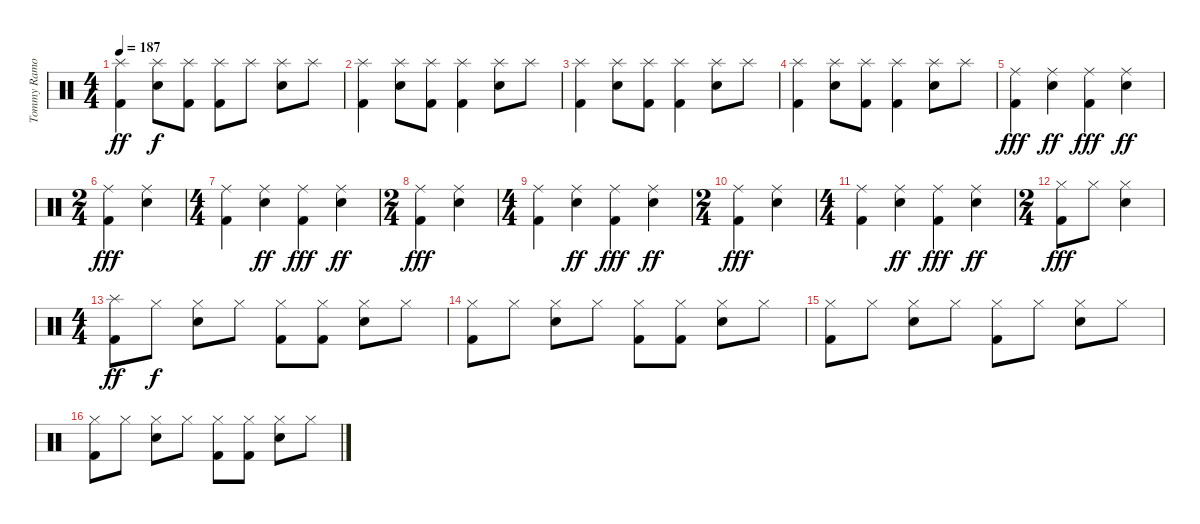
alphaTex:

\track ("Tommy Ramone" "Tommy Ramo") {instrument percussion}
\staff {score}
\articulation defaults
\ts (4 4)
\tempo 187
\clef neutral
\ks c
("Kick (hit) 2" "Splash (hit)").4{dy ff} ("Snare (hit) 2" "Splash (hit)").8{dy f} ("Kick (hit) 2" "Splash (hit)").8 ("Kick (hit) 2" "Splash (hit)").8 "Splash (hit)".8{bd 240} ("Snare (hit) 2" "Splash (hit)").8 "Splash (hit)".8{bd 240} |
("Kick (hit) 2" "Splash (hit)").4 ("Snare (hit) 2" "Splash (hit)").8 ("Kick (hit) 2" "Splash (hit)").8{bd 240} ("Kick (hit) 2" "Splash (hit)").4 ("Snare (hit) 2" "Splash (hit)").8 "Splash (hit)".8 |
("Kick (hit) 2" "Splash (hit)").4 ("Snare (hit) 2" "Splash (hit)").8 ("Kick (hit) 2" "Splash (hit)").8{bd 240} ("Kick (hit) 2" "Splash (hit)").4 ("Snare (hit) 2" "Splash (hit)").8 "Splash (hit)".8 |
("Kick (hit) 2" "Splash (hit)").4 ("Snare (hit) 2" "Splash (hit)").8 ("Kick (hit) 2" "Splash (hit)").8{bd 240} ("Kick (hit) 2" "Splash (hit)").4 ("Snare (hit) 2" "Splash (hit)").8 "Splash (hit)".8 |
("Kick (hit) 2" "Ride (middle)").4{dy fff} ("Snare (hit) 2" "Ride (middle)").4{dy ff} ("Kick (hit) 2" "Ride (middle)").4{dy fff} ("Snare (hit) 2" "Ride (middle)").4{dy ff} |
\ts (2 4)
("Kick (hit) 2" "Ride (middle)").4{dy fff} ("Snare (hit) 2" "Ride (middle)").4 |
\ts (4 4)
("Kick (hit) 2" "Ride (middle)").4 ("Snare (hit) 2" "Ride (middle)").4{dy ff} ("Kick (hit) 2" "Ride (middle)").4{dy fff} ("Snare (hit) 2" "Ride (middle)").4{dy ff} |
\ts (2 4)
("Kick (hit) 2" "Ride (middle)").4{dy fff} ("Snare (hit) 2" "Ride (middle)").4 |
\ts (4 4)
("Kick (hit) 2" "Ride (middle)").4 ("Snare (hit) 2" "Ride (middle)").4{dy ff} ("Kick (hit) 2" "Ride (middle)").4{dy fff} ("Snare (hit) 2" "Ride (middle)").4{dy ff} |
\ts (2 4)
("Kick (hit) 2" "Ride (middle)").4{dy fff} ("Snare (hit) 2" "Ride (middle)").4 |
\ts (4 4)
("Kick (hit) 2" "Ride (middle)").4 ("Snare (hit) 2" "Ride (middle)").4{dy ff} ("Kick (hit) 2" "Ride (middle)").4{dy fff} ("Snare (hit) 2" "Ride (middle)").4{dy ff} |
\ts (2 4)
("Kick (hit) 2" "Hi-Hat (closed)").8{dy fff} "Hi-Hat (closed)".8 ("Snare (hit) 2" "Hi-Hat (closed)").4 |
\ts (4 4)
("Kick (hit) 2" "Splash (hit)").8{dy ff} "Hi-Hat (closed)".8{dy f} ("Snare (hit) 2" "Hi-Hat (closed)").8 "Hi-Hat (closed)".8 ("Kick (hit) 2" "Hi-Hat (closed)").8 ("Kick (hit) 2" "Hi-Hat (closed)").8 ("Snare (hit) 2" "Hi-Hat (closed)").8 "Hi-Hat (closed)".8 |
("Kick (hit) 2" "Hi-Hat (closed)").8 "Hi-Hat (closed)".8 ("Snare (hit) 2" "Hi-Hat (closed)").8 "Hi-Hat (closed)".8 ("Kick (hit) 2" "Hi-Hat (closed)").8 ("Kick (hit) 2" "Hi-Hat (closed)").8 ("Snare (hit) 2" "Hi-Hat (closed)").8 "Hi-Hat (closed)".8 |
("Kick (hit) 2" "Hi-Hat (closed)").8 "Hi-Hat (closed)".8 ("Snare (hit) 2" "Hi-Hat (closed)").8 "Hi-Hat (closed)".8 ("Kick (hit) 2" "Hi-Hat (closed)").8 "Hi-Hat (closed)".8 ("Snare (hit) 2" "Hi-Hat (closed)").8 "Hi-Hat (closed)".8 |
("Kick (hit) 2" "Hi-Hat (closed)").8 "Hi-Hat (closed)".8 ("Snare (hit) 2" "Hi-Hat (closed)").8 "Hi-Hat (closed)".8 ("Kick (hit) 2" "Hi-Hat (closed)").8 ("Kick (hit) 2" "Hi-Hat (closed)").8 ("Snare (hit) 2" "Hi-Hat (closed)").8 "Hi-Hat (closed)".8
